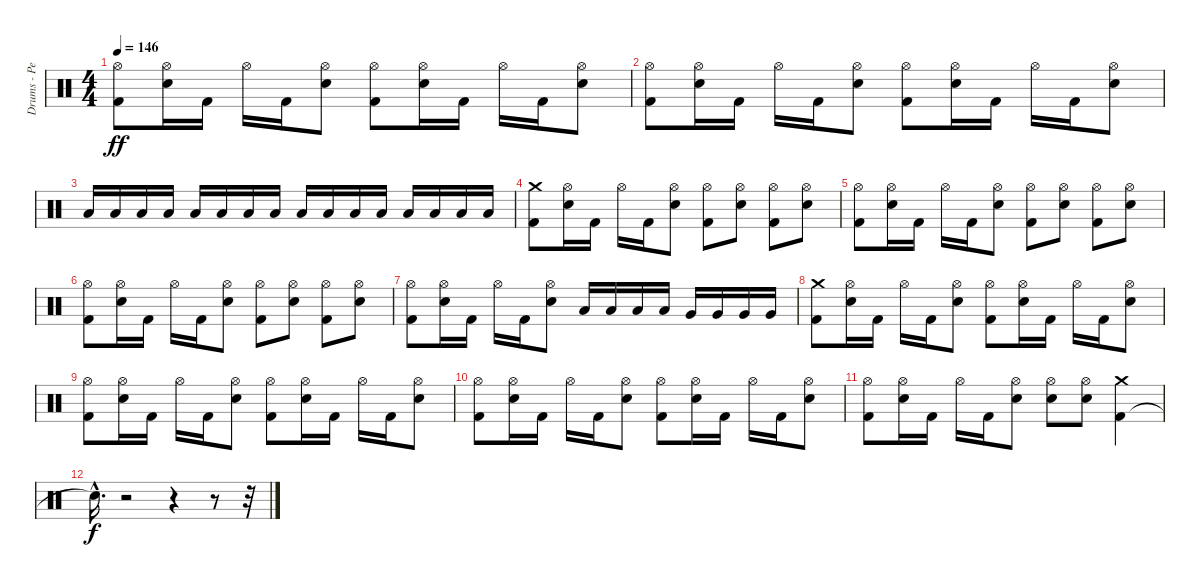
\track ("Drums - Pete Finestone" "Drums - Pe") {instrument percussion}
\staff {score}
\articulation defaults
\ts (4 4)
\tempo 146
\clef neutral
\ks c
("Kick (hit) 2" "Hi-Hat (open)").8{dy ff} ("Electric Snare (hit)" "Hi-Hat (open)").16 "Kick (hit) 2".16 "Hi-Hat (open)".16 "Kick (hit) 2".16 ("Electric Snare (hit)" "Hi-Hat (open)").8 ("Kick (hit) 2" "Hi-Hat (open)").8 ("Electric Snare (hit)" "Hi-Hat (open)").16 "Kick (hit) 2".16 "Hi-Hat (open)".16 "Kick (hit) 2".16 ("Electric Snare (hit)" "Hi-Hat (open)").8 |
("Kick (hit) 2" "Hi-Hat (open)").8 ("Electric Snare (hit)" "Hi-Hat (open)").16 "Kick (hit) 2".16 "Hi-Hat (open)".16 "Kick (hit) 2".16 ("Electric Snare (hit)" "Hi-Hat (open)").8 ("Kick (hit) 2" "Hi-Hat (open)").8 ("Electric Snare (hit)" "Hi-Hat (open)").16 "Kick (hit) 2".16 "Hi-Hat (open)".16 "Kick (hit) 2".16 ("Electric Snare (hit)" "Hi-Hat (open)").8 |
"Low Tom (hit)".16 "Low Tom (hit)".16 "Low Tom (hit)".16 "Low Tom (hit)".16 "Low Tom (hit)".16 "Low Tom (hit)".16 "Low Tom (hit)".16 "Low Tom (hit)".16 "Low Tom (hit)".16 "Low Tom (hit)".16 "Low Tom (hit)".16 "Low Tom (hit)".16 "Low Tom (hit)".16 "Low Tom (hit)".16 "Low Tom (hit)".16 "Low Tom (hit)".16 |
("Crash medium (hit)" "Kick (hit) 2").8 ("Electric Snare (hit)" "Hi-Hat (open)").16 "Kick (hit) 2".16 "Hi-Hat (open)".16 "Kick (hit) 2".16 ("Electric Snare (hit)" "Hi-Hat (open)").8 ("Kick (hit) 2" "Hi-Hat (open)").8 ("Electric Snare (hit)" "Hi-Hat (open)").8 ("Kick (hit) 2" "Hi-Hat (open)").8 ("Electric Snare (hit)" "Hi-Hat (open)").8 |
("Kick (hit) 2" "Hi-Hat (open)").8 ("Electric Snare (hit)" "Hi-Hat (open)").16 "Kick (hit) 2".16 "Hi-Hat (open)".16 "Kick (hit) 2".16 ("Electric Snare (hit)" "Hi-Hat (open)").8 ("Kick (hit) 2" "Hi-Hat (open)").8 ("Electric Snare (hit)" "Hi-Hat (open)").8 ("Kick (hit) 2" "Hi-Hat (open)").8 ("Electric Snare (hit)" "Hi-Hat (open)").8 |
("Hi-Hat (open)" "Kick (hit) 2").8 ("Hi-Hat (open)" "Electric Snare (hit)").16 "Kick (hit) 2".16 "Hi-Hat (open)".16 "Kick (hit) 2".16 ("Hi-Hat (open)" "Electric Snare (hit)").8 ("Hi-Hat (open)" "Kick (hit) 2").8 ("Hi-Hat (open)" "Electric Snare (hit)").8 ("Hi-Hat (open)" "Kick (hit) 2").8 ("Hi-Hat (open)" "Electric Snare (hit)").8 |
("Kick (hit) 2" "Hi-Hat (open)").8 ("Electric Snare (hit)" "Hi-Hat (open)").16 "Kick (hit) 2".16 "Hi-Hat (open)".16 "Kick (hit) 2".16 ("Electric Snare (hit)" "Hi-Hat (open)").8 "Low Tom (hit)".16 "Low Tom (hit)".16 "Low Tom (hit)".16 "Low Tom (hit)".16 "Very Low Tom (hit)".16 "Very Low Tom (hit)".16 "Very Low Tom (hit)".16 "Very Low Tom (hit)".16 |
("Kick (hit) 2" "Crash medium (hit)").8 ("Electric Snare (hit)" "Hi-Hat (open)").16 "Kick (hit) 2".16 "Hi-Hat (open)".16 "Kick (hit) 2".16 ("Electric Snare (hit)" "Hi-Hat (open)").8 ("Kick (hit) 2" "Hi-Hat (open)").8 ("Electric Snare (hit)" "Hi-Hat (open)").16 "Kick (hit) 2".16 "Hi-Hat (open)".16 "Kick (hit) 2".16 ("Electric Snare (hit)" "Hi-Hat (open)").8 |
("Kick (hit) 2" "Hi-Hat (open)").8 ("Electric Snare (hit)" "Hi-Hat (open)").16 "Kick (hit) 2".16 "Hi-Hat (open)".16 "Kick (hit) 2".16 ("Electric Snare (hit)" "Hi-Hat (open)").8 ("Kick (hit) 2" "Hi-Hat (open)").8 ("Electric Snare (hit)" "Hi-Hat (open)").16 "Kick (hit) 2".16 "Hi-Hat (open)".16 "Kick (hit) 2".16 ("Electric Snare (hit)" "Hi-Hat (open)").8 |
("Kick (hit) 2" "Hi-Hat (open)").8 ("Electric Snare (hit)" "Hi-Hat (open)").16 "Kick (hit) 2".16 "Hi-Hat (open)".16 "Kick (hit) 2".16 ("Electric Snare (hit)" "Hi-Hat (open)").8 ("Kick (hit) 2" "Hi-Hat (open)").8 ("Electric Snare (hit)" "Hi-Hat (open)").16 "Kick (hit) 2".16 "Hi-Hat (open)".16 "Kick (hit) 2".16 ("Electric Snare (hit)" "Hi-Hat (open)").8 |
("Kick (hit) 2" "Hi-Hat (open)").8 ("Electric Snare (hit)" "Hi-Hat (open)").16 "Kick (hit) 2".16 "Hi-Hat (open)".16 "Kick (hit) 2".16 ("Electric Snare (hit)" "Hi-Hat (open)").8 ("Electric Snare (hit)" "Hi-Hat (open)").8 ("Electric Snare (hit)" "Hi-Hat (open)").8 ("Kick (hit) 2" "Crash medium (hit)").4 |
"Snare (hit)"{hac t}.16{d dy f} r.2 r.4 r.8 r.32
